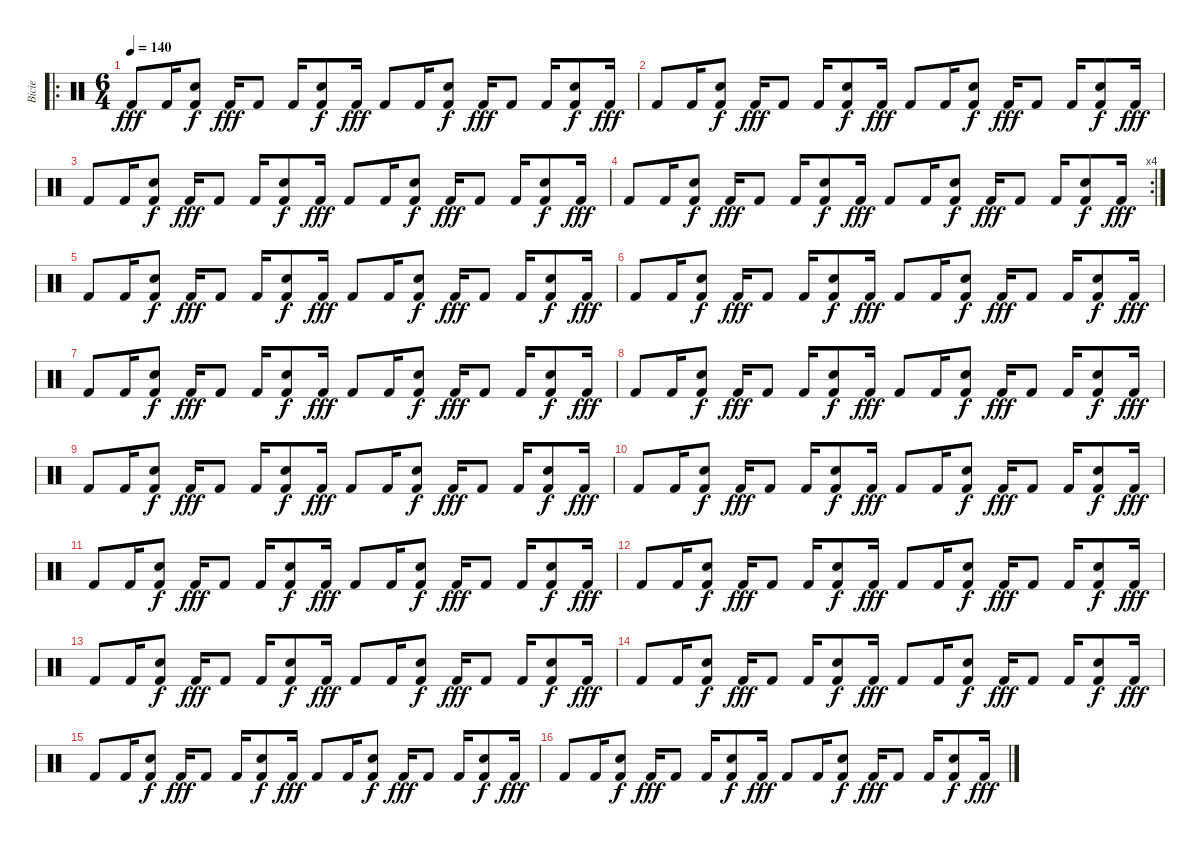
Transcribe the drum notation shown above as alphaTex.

\track ("Bicie" "Bicie") {instrument percussion}
\staff {score}
\articulation defaults
\ro
\ts (6 4)
\tempo 140
\clef neutral
\ks c "Kick (hit) 2".8{dy fff} "Kick (hit) 2".16
("Electric Snare (hit)" "Kick (hit) 2").8{dy f} "Kick (hit) 2".16{dy fff} "Kick (hit) 2".8 "Kick (hit) 2".16 ("Electric Snare (hit)" "Kick (hit) 2").8{dy f} "Kick (hit) 2".16{dy fff} "Kick (hit) 2".8 "Kick (hit) 2".16 ("Electric Snare (hit)" "Kick (hit) 2").8{dy f} "Kick (hit) 2".16{dy fff} "Kick (hit) 2".8 "Kick (hit) 2".16 ("Electric Snare (hit)" "Kick (hit) 2").8{dy f} "Kick (hit) 2".16{dy fff} |
"Kick (hit) 2".8 "Kick (hit) 2".16 ("Electric Snare (hit)" "Kick (hit) 2").8{dy f} "Kick (hit) 2".16{dy fff} "Kick (hit) 2".8 "Kick (hit) 2".16 ("Electric Snare (hit)" "Kick (hit) 2").8{dy f} "Kick (hit) 2".16{dy fff} "Kick (hit) 2".8 "Kick (hit) 2".16 ("Electric Snare (hit)" "Kick (hit) 2").8{dy f} "Kick (hit) 2".16{dy fff} "Kick (hit) 2".8 "Kick (hit) 2".16 ("Electric Snare (hit)" "Kick (hit) 2").8{dy f} "Kick (hit) 2".16{dy fff} |
"Kick (hit) 2".8 "Kick (hit) 2".16 ("Electric Snare (hit)" "Kick (hit) 2").8{dy f} "Kick (hit) 2".16{dy fff} "Kick (hit) 2".8 "Kick (hit) 2".16 ("Electric Snare (hit)" "Kick (hit) 2").8{dy f} "Kick (hit) 2".16{dy fff} "Kick (hit) 2".8 "Kick (hit) 2".16 ("Electric Snare (hit)" "Kick (hit) 2").8{dy f} "Kick (hit) 2".16{dy fff} "Kick (hit) 2".8 "Kick (hit) 2".16 ("Electric Snare (hit)" "Kick (hit) 2").8{dy f} "Kick (hit) 2".16{dy fff} |
\rc 4 "Kick (hit) 2".8 "Kick (hit) 2".16
("Electric Snare (hit)" "Kick (hit) 2").8{dy f} "Kick (hit) 2".16{dy fff} "Kick (hit) 2".8 "Kick (hit) 2".16 ("Electric Snare (hit)" "Kick (hit) 2").8{dy f} "Kick (hit) 2".16{dy fff} "Kick (hit) 2".8 "Kick (hit) 2".16 ("Electric Snare (hit)" "Kick (hit) 2").8{dy f} "Kick (hit) 2".16{dy fff} "Kick (hit) 2".8 "Kick (hit) 2".16 ("Electric Snare (hit)" "Kick (hit) 2").8{dy f} "Kick (hit) 2".16{dy fff} |
"Kick (hit) 2".8 "Kick (hit) 2".16 ("Electric Snare (hit)" "Kick (hit) 2").8{dy f} "Kick (hit) 2".16{dy fff} "Kick (hit) 2".8 "Kick (hit) 2".16 ("Electric Snare (hit)" "Kick (hit) 2").8{dy f} "Kick (hit) 2".16{dy fff} "Kick (hit) 2".8 "Kick (hit) 2".16 ("Electric Snare (hit)" "Kick (hit) 2").8{dy f} "Kick (hit) 2".16{dy fff} "Kick (hit) 2".8 "Kick (hit) 2".16 ("Electric Snare (hit)" "Kick (hit) 2").8{dy f} "Kick (hit) 2".16{dy fff} |
"Kick (hit) 2".8 "Kick (hit) 2".16 ("Electric Snare (hit)" "Kick (hit) 2").8{dy f} "Kick (hit) 2".16{dy fff} "Kick (hit) 2".8 "Kick (hit) 2".16 ("Electric Snare (hit)" "Kick (hit) 2").8{dy f} "Kick (hit) 2".16{dy fff} "Kick (hit) 2".8 "Kick (hit) 2".16 ("Electric Snare (hit)" "Kick (hit) 2").8{dy f} "Kick (hit) 2".16{dy fff} "Kick (hit) 2".8 "Kick (hit) 2".16 ("Electric Snare (hit)" "Kick (hit) 2").8{dy f} "Kick (hit) 2".16{dy fff} |
"Kick (hit) 2".8 "Kick (hit) 2".16 ("Electric Snare (hit)" "Kick (hit) 2").8{dy f} "Kick (hit) 2".16{dy fff} "Kick (hit) 2".8 "Kick (hit) 2".16 ("Electric Snare (hit)" "Kick (hit) 2").8{dy f} "Kick (hit) 2".16{dy fff} "Kick (hit) 2".8 "Kick (hit) 2".16 ("Electric Snare (hit)" "Kick (hit) 2").8{dy f} "Kick (hit) 2".16{dy fff} "Kick (hit) 2".8 "Kick (hit) 2".16 ("Electric Snare (hit)" "Kick (hit) 2").8{dy f} "Kick (hit) 2".16{dy fff} |
"Kick (hit) 2".8 "Kick (hit) 2".16 ("Electric Snare (hit)" "Kick (hit) 2").8{dy f} "Kick (hit) 2".16{dy fff} "Kick (hit) 2".8 "Kick (hit) 2".16 ("Electric Snare (hit)" "Kick (hit) 2").8{dy f} "Kick (hit) 2".16{dy fff} "Kick (hit) 2".8 "Kick (hit) 2".16 ("Electric Snare (hit)" "Kick (hit) 2").8{dy f} "Kick (hit) 2".16{dy fff} "Kick (hit) 2".8 "Kick (hit) 2".16 ("Electric Snare (hit)" "Kick (hit) 2").8{dy f} "Kick (hit) 2".16{dy fff} |
"Kick (hit) 2".8 "Kick (hit) 2".16 ("Electric Snare (hit)" "Kick (hit) 2").8{dy f} "Kick (hit) 2".16{dy fff} "Kick (hit) 2".8 "Kick (hit) 2".16 ("Electric Snare (hit)" "Kick (hit) 2").8{dy f} "Kick (hit) 2".16{dy fff} "Kick (hit) 2".8 "Kick (hit) 2".16 ("Electric Snare (hit)" "Kick (hit) 2").8{dy f} "Kick (hit) 2".16{dy fff} "Kick (hit) 2".8 "Kick (hit) 2".16 ("Electric Snare (hit)" "Kick (hit) 2").8{dy f} "Kick (hit) 2".16{dy fff} |
"Kick (hit) 2".8 "Kick (hit) 2".16 ("Electric Snare (hit)" "Kick (hit) 2").8{dy f} "Kick (hit) 2".16{dy fff} "Kick (hit) 2".8 "Kick (hit) 2".16 ("Electric Snare (hit)" "Kick (hit) 2").8{dy f} "Kick (hit) 2".16{dy fff} "Kick (hit) 2".8 "Kick (hit) 2".16 ("Electric Snare (hit)" "Kick (hit) 2").8{dy f} "Kick (hit) 2".16{dy fff} "Kick (hit) 2".8 "Kick (hit) 2".16 ("Electric Snare (hit)" "Kick (hit) 2").8{dy f} "Kick (hit) 2".16{dy fff} |
"Kick (hit) 2".8 "Kick (hit) 2".16 ("Electric Snare (hit)" "Kick (hit) 2").8{dy f} "Kick (hit) 2".16{dy fff} "Kick (hit) 2".8 "Kick (hit) 2".16 ("Electric Snare (hit)" "Kick (hit) 2").8{dy f} "Kick (hit) 2".16{dy fff} "Kick (hit) 2".8 "Kick (hit) 2".16 ("Electric Snare (hit)" "Kick (hit) 2").8{dy f} "Kick (hit) 2".16{dy fff} "Kick (hit) 2".8 "Kick (hit) 2".16 ("Electric Snare (hit)" "Kick (hit) 2").8{dy f} "Kick (hit) 2".16{dy fff} |
"Kick (hit) 2".8 "Kick (hit) 2".16 ("Electric Snare (hit)" "Kick (hit) 2").8{dy f} "Kick (hit) 2".16{dy fff} "Kick (hit) 2".8 "Kick (hit) 2".16 ("Electric Snare (hit)" "Kick (hit) 2").8{dy f} "Kick (hit) 2".16{dy fff} "Kick (hit) 2".8 "Kick (hit) 2".16 ("Electric Snare (hit)" "Kick (hit) 2").8{dy f} "Kick (hit) 2".16{dy fff} "Kick (hit) 2".8 "Kick (hit) 2".16 ("Electric Snare (hit)" "Kick (hit) 2").8{dy f} "Kick (hit) 2".16{dy fff} |
"Kick (hit) 2".8 "Kick (hit) 2".16 ("Electric Snare (hit)" "Kick (hit) 2").8{dy f} "Kick (hit) 2".16{dy fff} "Kick (hit) 2".8 "Kick (hit) 2".16 ("Electric Snare (hit)" "Kick (hit) 2").8{dy f} "Kick (hit) 2".16{dy fff} "Kick (hit) 2".8 "Kick (hit) 2".16 ("Electric Snare (hit)" "Kick (hit) 2").8{dy f} "Kick (hit) 2".16{dy fff} "Kick (hit) 2".8 "Kick (hit) 2".16 ("Electric Snare (hit)" "Kick (hit) 2").8{dy f} "Kick (hit) 2".16{dy fff} |
"Kick (hit) 2".8 "Kick (hit) 2".16 ("Electric Snare (hit)" "Kick (hit) 2").8{dy f} "Kick (hit) 2".16{dy fff} "Kick (hit) 2".8 "Kick (hit) 2".16 ("Electric Snare (hit)" "Kick (hit) 2").8{dy f} "Kick (hit) 2".16{dy fff} "Kick (hit) 2".8 "Kick (hit) 2".16 ("Electric Snare (hit)" "Kick (hit) 2").8{dy f} "Kick (hit) 2".16{dy fff} "Kick (hit) 2".8 "Kick (hit) 2".16 ("Electric Snare (hit)" "Kick (hit) 2").8{dy f} "Kick (hit) 2".16{dy fff} |
"Kick (hit) 2".8 "Kick (hit) 2".16 ("Electric Snare (hit)" "Kick (hit) 2").8{dy f} "Kick (hit) 2".16{dy fff} "Kick (hit) 2".8 "Kick (hit) 2".16 ("Electric Snare (hit)" "Kick (hit) 2").8{dy f} "Kick (hit) 2".16{dy fff} "Kick (hit) 2".8 "Kick (hit) 2".16 ("Electric Snare (hit)" "Kick (hit) 2").8{dy f} "Kick (hit) 2".16{dy fff} "Kick (hit) 2".8 "Kick (hit) 2".16 ("Electric Snare (hit)" "Kick (hit) 2").8{dy f} "Kick (hit) 2".16{dy fff} |
"Kick (hit) 2".8 "Kick (hit) 2".16 ("Electric Snare (hit)" "Kick (hit) 2").8{dy f} "Kick (hit) 2".16{dy fff} "Kick (hit) 2".8 "Kick (hit) 2".16 ("Electric Snare (hit)" "Kick (hit) 2").8{dy f} "Kick (hit) 2".16{dy fff} "Kick (hit) 2".8 "Kick (hit) 2".16 ("Electric Snare (hit)" "Kick (hit) 2").8{dy f} "Kick (hit) 2".16{dy fff} "Kick (hit) 2".8 "Kick (hit) 2".16 ("Electric Snare (hit)" "Kick (hit) 2").8{dy f} "Kick (hit) 2".16{dy fff}
